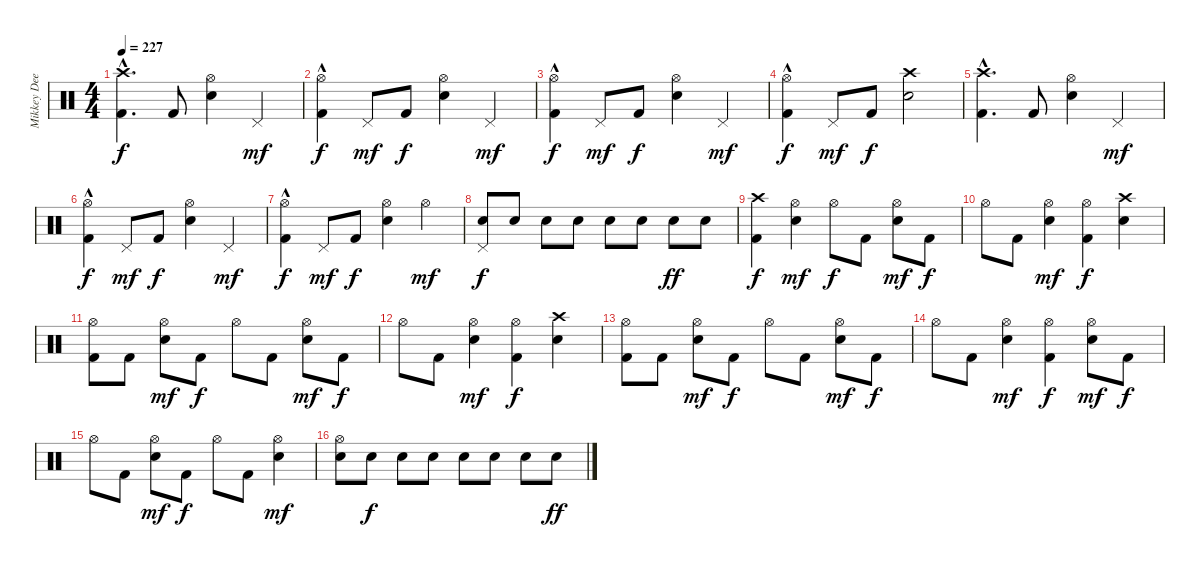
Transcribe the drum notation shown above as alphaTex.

\track ("Mikkey Dee" "Mikkey Dee") {instrument percussion}
\staff {score}
\articulation defaults
\ts (4 4)
\tempo 227
\clef neutral
\ks c
("Crash high (hit)" "Kick (hit) 2"{hac}).4{d dy f} "Kick (hit) 2".8 ("Hi-Hat (open)" "Electric Snare (hit)").4 "Pedal Hi-Hat (hit)".4{dy mf} |
("Hi-Hat (open)" "Kick (hit) 2"{hac}).4{dy f} "Pedal Hi-Hat (hit)".8{dy mf} "Kick (hit) 2".8{dy f} ("Hi-Hat (open)" "Electric Snare (hit)").4 "Pedal Hi-Hat (hit)".4{dy mf} |
("Kick (hit) 2"{hac} "Hi-Hat (open)").4{dy f} "Pedal Hi-Hat (hit)".8{dy mf} "Kick (hit) 2".8{dy f} ("Electric Snare (hit)" "Hi-Hat (open)").4 "Pedal Hi-Hat (hit)".4{dy mf} |
("Hi-Hat (open)" "Kick (hit) 2"{hac}).4{dy f} "Pedal Hi-Hat (hit)".8{dy mf} "Kick (hit) 2".8{dy f} ("Crash high (hit)" "Electric Snare (hit)").2 |
("Kick (hit) 2"{hac} "Crash high (hit)").4{d} "Kick (hit) 2".8 ("Electric Snare (hit)" "Hi-Hat (open)").4 "Pedal Hi-Hat (hit)".4{dy mf} |
("Kick (hit) 2"{hac} "Hi-Hat (open)").4{dy f} "Pedal Hi-Hat (hit)".8{dy mf} "Kick (hit) 2".8{dy f} ("Hi-Hat (open)" "Electric Snare (hit)").4 "Pedal Hi-Hat (hit)".4{dy mf} |
("Kick (hit) 2"{hac} "Hi-Hat (open)").4{dy f} "Pedal Hi-Hat (hit)".8{dy mf} "Kick (hit) 2".8{dy f} ("Hi-Hat (open)" "Electric Snare (hit)").4 "Hi-Hat (open)".4{dy mf} |
("Pedal Hi-Hat (hit)" "Electric Snare (hit)").8{dy f} "Electric Snare (hit)".8 "Electric Snare (hit)".8 "Electric Snare (hit)".8 "Electric Snare (hit)".8 "Electric Snare (hit)".8 "Electric Snare (hit)".8{dy ff} "Electric Snare (hit)".8 |
("Kick (hit) 2" "Crash high (hit)").4{dy f} ("Electric Snare (hit)" "Hi-Hat (open)").4{dy mf} "Hi-Hat (open)".8{dy f} "Kick (hit) 2".8 ("Electric Snare (hit)" "Hi-Hat (open)").8{dy mf} "Kick (hit) 2".8{dy f} |
"Hi-Hat (open)".8 "Kick (hit) 2".8 ("Electric Snare (hit)" "Hi-Hat (open)").4{dy mf} ("Hi-Hat (open)" "Kick (hit) 2").4{dy f} ("Crash high (hit)" "Electric Snare (hit)").4 |
("Hi-Hat (open)" "Kick (hit) 2").8 "Kick (hit) 2".8 ("Hi-Hat (open)" "Electric Snare (hit)").8{dy mf} "Kick (hit) 2".8{dy f} "Hi-Hat (open)".8 "Kick (hit) 2".8 ("Hi-Hat (open)" "Electric Snare (hit)").8{dy mf} "Kick (hit) 2".8{dy f} |
"Hi-Hat (open)".8 "Kick (hit) 2".8 ("Electric Snare (hit)" "Hi-Hat (open)").4{dy mf} ("Hi-Hat (open)" "Kick (hit) 2").4{dy f} ("Crash high (hit)" "Electric Snare (hit)").4 |
("Kick (hit) 2" "Hi-Hat (open)").8 "Kick (hit) 2".8 ("Hi-Hat (open)" "Electric Snare (hit)").8{dy mf} "Kick (hit) 2".8{dy f} "Hi-Hat (open)".8 "Kick (hit) 2".8 ("Hi-Hat (open)" "Electric Snare (hit)").8{dy mf} "Kick (hit) 2".8{dy f} |
"Hi-Hat (open)".8 "Kick (hit) 2".8 ("Hi-Hat (open)" "Electric Snare (hit)").4{dy mf} ("Kick (hit) 2" "Hi-Hat (open)").4{dy f} ("Electric Snare (hit)" "Hi-Hat (open)").8{dy mf} "Kick (hit) 2".8{dy f} |
"Hi-Hat (open)".8 "Kick (hit) 2".8 ("Hi-Hat (open)" "Electric Snare (hit)").8{dy mf} "Kick (hit) 2".8{dy f} "Hi-Hat (open)".8 "Kick (hit) 2".8 ("Electric Snare (hit)" "Hi-Hat (open)").4{dy mf} |
("Electric Snare (hit)" "Hi-Hat (open)").8 "Electric Snare (hit)".8{dy f} "Electric Snare (hit)".8 "Electric Snare (hit)".8 "Electric Snare (hit)".8 "Electric Snare (hit)".8 "Electric Snare (hit)".8 "Electric Snare (hit)".8{dy ff}
